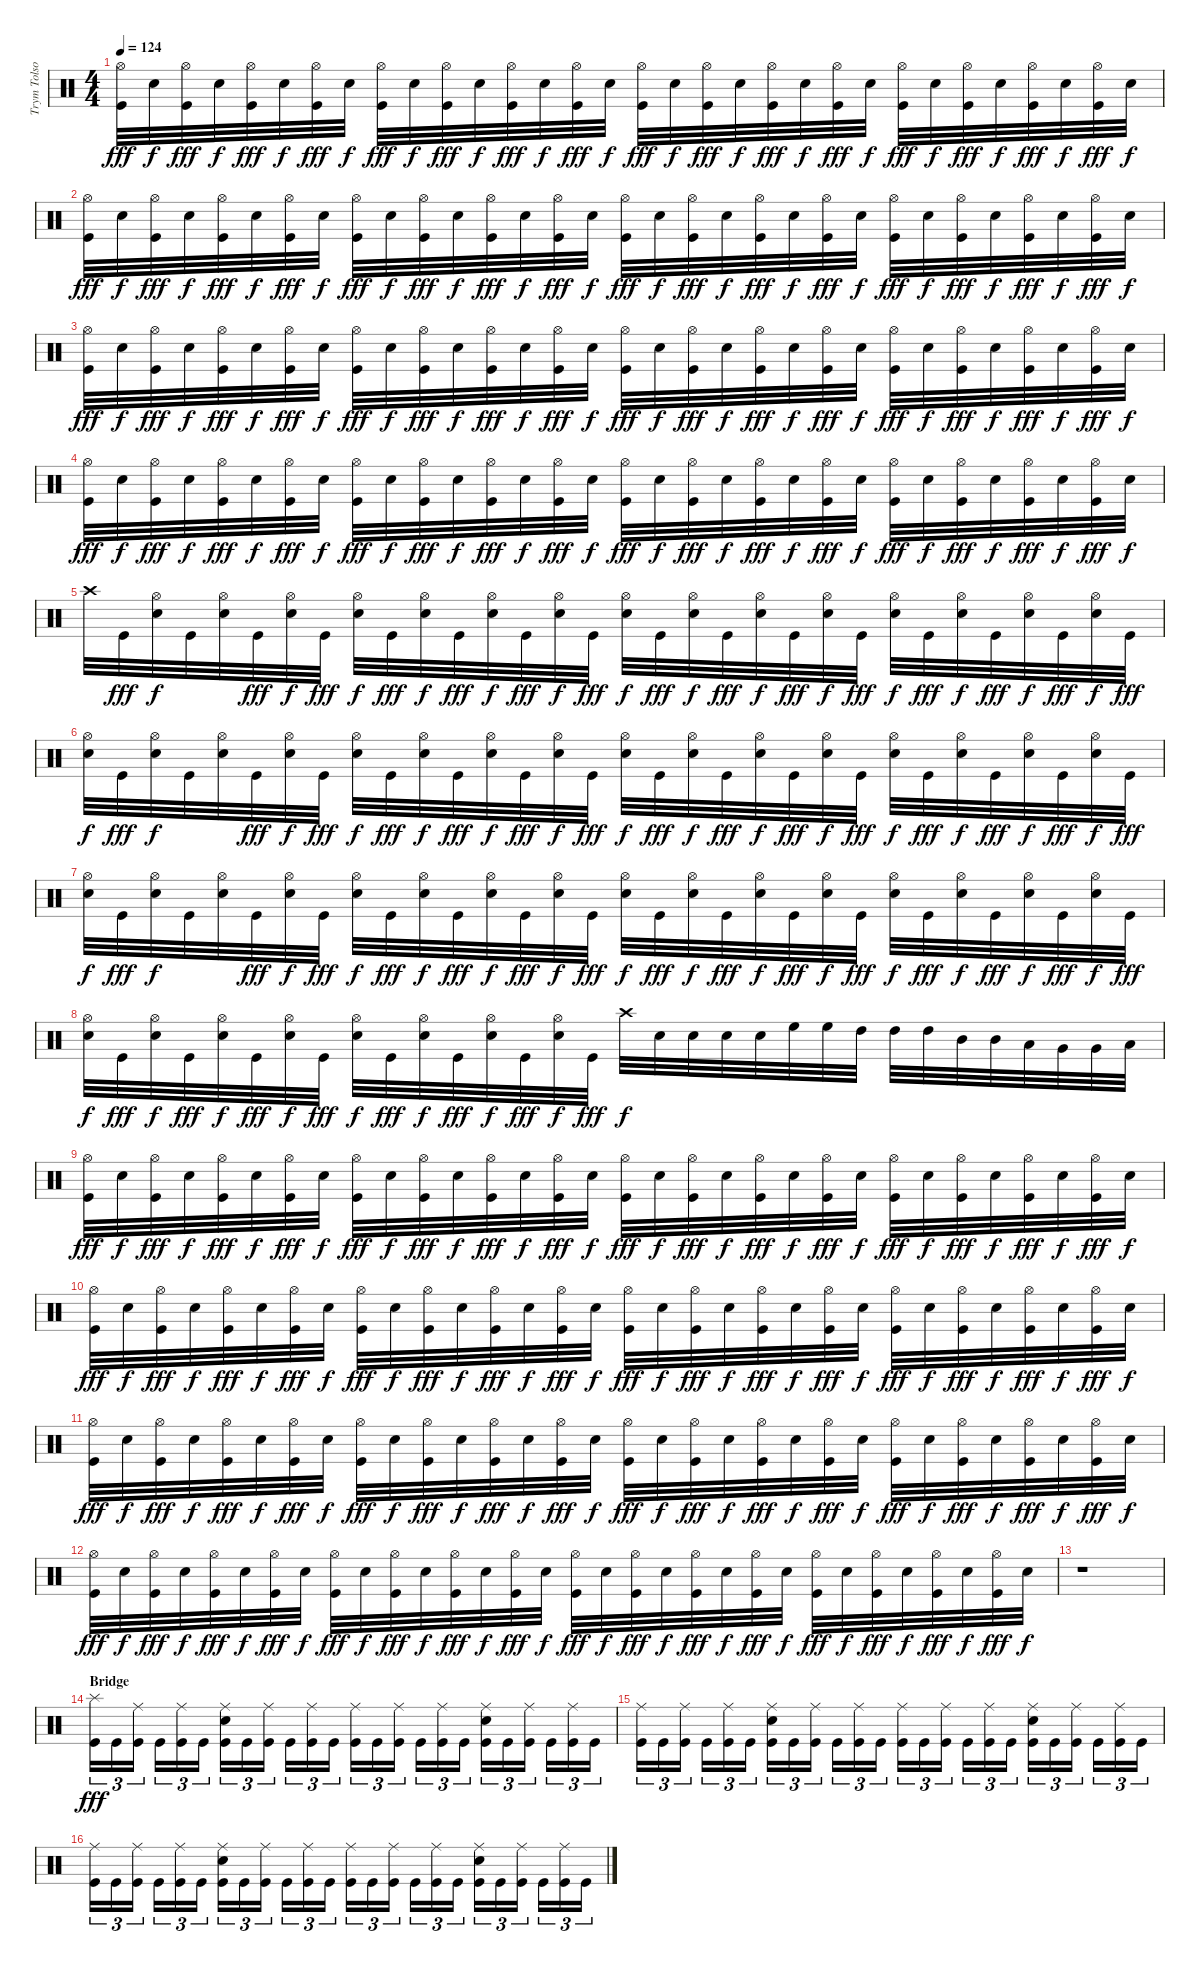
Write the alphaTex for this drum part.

\track ("Trym Tolson" "Trym Tolso") {instrument percussion}
\staff {score}
\articulation defaults
\ts (4 4)
\tempo 124
\clef neutral
\ks c
("Hi-Hat (open)" "Kick (hit)").32{dy fff} "Electric Snare (hit)".32{dy f} ("Hi-Hat (open)" "Kick (hit)").32{dy fff} "Electric Snare (hit)".32{dy f} ("Hi-Hat (open)" "Kick (hit)").32{dy fff} "Electric Snare (hit)".32{dy f} ("Hi-Hat (open)" "Kick (hit)").32{dy fff} "Electric Snare (hit)".32{dy f} ("Hi-Hat (open)" "Kick (hit)").32{dy fff} "Electric Snare (hit)".32{dy f} ("Hi-Hat (open)" "Kick (hit)").32{dy fff} "Electric Snare (hit)".32{dy f} ("Hi-Hat (open)" "Kick (hit)").32{dy fff} "Electric Snare (hit)".32{dy f} ("Hi-Hat (open)" "Kick (hit)").32{dy fff} "Electric Snare (hit)".32{dy f} ("Hi-Hat (open)" "Kick (hit)").32{dy fff} "Electric Snare (hit)".32{dy f} ("Hi-Hat (open)" "Kick (hit)").32{dy fff} "Electric Snare (hit)".32{dy f} ("Hi-Hat (open)" "Kick (hit)").32{dy fff} "Electric Snare (hit)".32{dy f} ("Hi-Hat (open)" "Kick (hit)").32{dy fff} "Electric Snare (hit)".32{dy f} ("Hi-Hat (open)" "Kick (hit)").32{dy fff} "Electric Snare (hit)".32{dy f} ("Hi-Hat (open)" "Kick (hit)").32{dy fff} "Electric Snare (hit)".32{dy f} ("Hi-Hat (open)" "Kick (hit)").32{dy fff} "Electric Snare (hit)".32{dy f} ("Hi-Hat (open)" "Kick (hit)").32{dy fff} "Electric Snare (hit)".32{dy f} |
("Hi-Hat (open)" "Kick (hit)").32{dy fff} "Electric Snare (hit)".32{dy f} ("Hi-Hat (open)" "Kick (hit)").32{dy fff} "Electric Snare (hit)".32{dy f} ("Hi-Hat (open)" "Kick (hit)").32{dy fff} "Electric Snare (hit)".32{dy f} ("Hi-Hat (open)" "Kick (hit)").32{dy fff} "Electric Snare (hit)".32{dy f} ("Hi-Hat (open)" "Kick (hit)").32{dy fff} "Electric Snare (hit)".32{dy f} ("Hi-Hat (open)" "Kick (hit)").32{dy fff} "Electric Snare (hit)".32{dy f} ("Hi-Hat (open)" "Kick (hit)").32{dy fff} "Electric Snare (hit)".32{dy f} ("Hi-Hat (open)" "Kick (hit)").32{dy fff} "Electric Snare (hit)".32{dy f} ("Hi-Hat (open)" "Kick (hit)").32{dy fff} "Electric Snare (hit)".32{dy f} ("Hi-Hat (open)" "Kick (hit)").32{dy fff} "Electric Snare (hit)".32{dy f} ("Hi-Hat (open)" "Kick (hit)").32{dy fff} "Electric Snare (hit)".32{dy f} ("Hi-Hat (open)" "Kick (hit)").32{dy fff} "Electric Snare (hit)".32{dy f} ("Hi-Hat (open)" "Kick (hit)").32{dy fff} "Electric Snare (hit)".32{dy f} ("Hi-Hat (open)" "Kick (hit)").32{dy fff} "Electric Snare (hit)".32{dy f} ("Hi-Hat (open)" "Kick (hit)").32{dy fff} "Electric Snare (hit)".32{dy f} ("Hi-Hat (open)" "Kick (hit)").32{dy fff} "Electric Snare (hit)".32{dy f} |
("Hi-Hat (open)" "Kick (hit)").32{dy fff} "Electric Snare (hit)".32{dy f} ("Hi-Hat (open)" "Kick (hit)").32{dy fff} "Electric Snare (hit)".32{dy f} ("Hi-Hat (open)" "Kick (hit)").32{dy fff} "Electric Snare (hit)".32{dy f} ("Hi-Hat (open)" "Kick (hit)").32{dy fff} "Electric Snare (hit)".32{dy f} ("Hi-Hat (open)" "Kick (hit)").32{dy fff} "Electric Snare (hit)".32{dy f} ("Hi-Hat (open)" "Kick (hit)").32{dy fff} "Electric Snare (hit)".32{dy f} ("Hi-Hat (open)" "Kick (hit)").32{dy fff} "Electric Snare (hit)".32{dy f} ("Hi-Hat (open)" "Kick (hit)").32{dy fff} "Electric Snare (hit)".32{dy f} ("Hi-Hat (open)" "Kick (hit)").32{dy fff} "Electric Snare (hit)".32{dy f} ("Hi-Hat (open)" "Kick (hit)").32{dy fff} "Electric Snare (hit)".32{dy f} ("Hi-Hat (open)" "Kick (hit)").32{dy fff} "Electric Snare (hit)".32{dy f} ("Hi-Hat (open)" "Kick (hit)").32{dy fff} "Electric Snare (hit)".32{dy f} ("Hi-Hat (open)" "Kick (hit)").32{dy fff} "Electric Snare (hit)".32{dy f} ("Hi-Hat (open)" "Kick (hit)").32{dy fff} "Electric Snare (hit)".32{dy f} ("Hi-Hat (open)" "Kick (hit)").32{dy fff} "Electric Snare (hit)".32{dy f} ("Hi-Hat (open)" "Kick (hit)").32{dy fff} "Electric Snare (hit)".32{dy f} |
("Hi-Hat (open)" "Kick (hit)").32{dy fff} "Electric Snare (hit)".32{dy f} ("Hi-Hat (open)" "Kick (hit)").32{dy fff} "Electric Snare (hit)".32{dy f} ("Hi-Hat (open)" "Kick (hit)").32{dy fff} "Electric Snare (hit)".32{dy f} ("Hi-Hat (open)" "Kick (hit)").32{dy fff} "Electric Snare (hit)".32{dy f} ("Hi-Hat (open)" "Kick (hit)").32{dy fff} "Electric Snare (hit)".32{dy f} ("Hi-Hat (open)" "Kick (hit)").32{dy fff} "Electric Snare (hit)".32{dy f} ("Hi-Hat (open)" "Kick (hit)").32{dy fff} "Electric Snare (hit)".32{dy f} ("Hi-Hat (open)" "Kick (hit)").32{dy fff} "Electric Snare (hit)".32{dy f} ("Hi-Hat (open)" "Kick (hit)").32{dy fff} "Electric Snare (hit)".32{dy f} ("Hi-Hat (open)" "Kick (hit)").32{dy fff} "Electric Snare (hit)".32{dy f} ("Hi-Hat (open)" "Kick (hit)").32{dy fff} "Electric Snare (hit)".32{dy f} ("Hi-Hat (open)" "Kick (hit)").32{dy fff} "Electric Snare (hit)".32{dy f} ("Hi-Hat (open)" "Kick (hit)").32{dy fff} "Electric Snare (hit)".32{dy f} ("Hi-Hat (open)" "Kick (hit)").32{dy fff} "Electric Snare (hit)".32{dy f} ("Hi-Hat (open)" "Kick (hit)").32{dy fff} "Electric Snare (hit)".32{dy f} ("Hi-Hat (open)" "Kick (hit)").32{dy fff} "Electric Snare (hit)".32{dy f} |
"Crash high (hit)".32 "Kick (hit)".32{dy fff} ("Hi-Hat (open)" "Electric Snare (hit)").32{dy f} "Kick (hit)".32 ("Hi-Hat (open)" "Electric Snare (hit)").32 "Kick (hit)".32{dy fff} ("Hi-Hat (open)" "Electric Snare (hit)").32{dy f} "Kick (hit)".32{dy fff} ("Hi-Hat (open)" "Electric Snare (hit)").32{dy f} "Kick (hit)".32{dy fff} ("Hi-Hat (open)" "Electric Snare (hit)").32{dy f} "Kick (hit)".32{dy fff} ("Hi-Hat (open)" "Electric Snare (hit)").32{dy f} "Kick (hit)".32{dy fff} ("Hi-Hat (open)" "Electric Snare (hit)").32{dy f} "Kick (hit)".32{dy fff} ("Hi-Hat (open)" "Electric Snare (hit)").32{dy f} "Kick (hit)".32{dy fff} ("Hi-Hat (open)" "Electric Snare (hit)").32{dy f} "Kick (hit)".32{dy fff} ("Hi-Hat (open)" "Electric Snare (hit)").32{dy f} "Kick (hit)".32{dy fff} ("Hi-Hat (open)" "Electric Snare (hit)").32{dy f} "Kick (hit)".32{dy fff} ("Hi-Hat (open)" "Electric Snare (hit)").32{dy f} "Kick (hit)".32{dy fff} ("Hi-Hat (open)" "Electric Snare (hit)").32{dy f} "Kick (hit)".32{dy fff} ("Hi-Hat (open)" "Electric Snare (hit)").32{dy f} "Kick (hit)".32{dy fff} ("Hi-Hat (open)" "Electric Snare (hit)").32{dy f} "Kick (hit)".32{dy fff} |
("Hi-Hat (open)" "Electric Snare (hit)").32{dy f} "Kick (hit)".32{dy fff} ("Hi-Hat (open)" "Electric Snare (hit)").32{dy f} "Kick (hit)".32 ("Hi-Hat (open)" "Electric Snare (hit)").32 "Kick (hit)".32{dy fff} ("Hi-Hat (open)" "Electric Snare (hit)").32{dy f} "Kick (hit)".32{dy fff} ("Hi-Hat (open)" "Electric Snare (hit)").32{dy f} "Kick (hit)".32{dy fff} ("Hi-Hat (open)" "Electric Snare (hit)").32{dy f} "Kick (hit)".32{dy fff} ("Hi-Hat (open)" "Electric Snare (hit)").32{dy f} "Kick (hit)".32{dy fff} ("Hi-Hat (open)" "Electric Snare (hit)").32{dy f} "Kick (hit)".32{dy fff} ("Hi-Hat (open)" "Electric Snare (hit)").32{dy f} "Kick (hit)".32{dy fff} ("Hi-Hat (open)" "Electric Snare (hit)").32{dy f} "Kick (hit)".32{dy fff} ("Hi-Hat (open)" "Electric Snare (hit)").32{dy f} "Kick (hit)".32{dy fff} ("Hi-Hat (open)" "Electric Snare (hit)").32{dy f} "Kick (hit)".32{dy fff} ("Hi-Hat (open)" "Electric Snare (hit)").32{dy f} "Kick (hit)".32{dy fff} ("Hi-Hat (open)" "Electric Snare (hit)").32{dy f} "Kick (hit)".32{dy fff} ("Hi-Hat (open)" "Electric Snare (hit)").32{dy f} "Kick (hit)".32{dy fff} ("Hi-Hat (open)" "Electric Snare (hit)").32{dy f} "Kick (hit)".32{dy fff} |
("Hi-Hat (open)" "Electric Snare (hit)").32{dy f} "Kick (hit)".32{dy fff} ("Hi-Hat (open)" "Electric Snare (hit)").32{dy f} "Kick (hit)".32 ("Hi-Hat (open)" "Electric Snare (hit)").32 "Kick (hit)".32{dy fff} ("Hi-Hat (open)" "Electric Snare (hit)").32{dy f} "Kick (hit)".32{dy fff} ("Hi-Hat (open)" "Electric Snare (hit)").32{dy f} "Kick (hit)".32{dy fff} ("Hi-Hat (open)" "Electric Snare (hit)").32{dy f} "Kick (hit)".32{dy fff} ("Hi-Hat (open)" "Electric Snare (hit)").32{dy f} "Kick (hit)".32{dy fff} ("Hi-Hat (open)" "Electric Snare (hit)").32{dy f} "Kick (hit)".32{dy fff} ("Hi-Hat (open)" "Electric Snare (hit)").32{dy f} "Kick (hit)".32{dy fff} ("Hi-Hat (open)" "Electric Snare (hit)").32{dy f} "Kick (hit)".32{dy fff} ("Hi-Hat (open)" "Electric Snare (hit)").32{dy f} "Kick (hit)".32{dy fff} ("Hi-Hat (open)" "Electric Snare (hit)").32{dy f} "Kick (hit)".32{dy fff} ("Hi-Hat (open)" "Electric Snare (hit)").32{dy f} "Kick (hit)".32{dy fff} ("Hi-Hat (open)" "Electric Snare (hit)").32{dy f} "Kick (hit)".32{dy fff} ("Hi-Hat (open)" "Electric Snare (hit)").32{dy f} "Kick (hit)".32{dy fff} ("Hi-Hat (open)" "Electric Snare (hit)").32{dy f} "Kick (hit)".32{dy fff} |
("Hi-Hat (open)" "Electric Snare (hit)").32{dy f} "Kick (hit)".32{dy fff} ("Hi-Hat (open)" "Electric Snare (hit)").32{dy f} "Kick (hit)".32{dy fff} ("Hi-Hat (open)" "Electric Snare (hit)").32{dy f} "Kick (hit)".32{dy fff} ("Hi-Hat (open)" "Electric Snare (hit)").32{dy f} "Kick (hit)".32{dy fff} ("Hi-Hat (open)" "Electric Snare (hit)").32{dy f} "Kick (hit)".32{dy fff} ("Hi-Hat (open)" "Electric Snare (hit)").32{dy f} "Kick (hit)".32{dy fff} ("Hi-Hat (open)" "Electric Snare (hit)").32{dy f} "Kick (hit)".32{dy fff} ("Hi-Hat (open)" "Electric Snare (hit)").32{dy f} "Kick (hit)".32{dy fff} "Crash high (hit)".32{dy f} "Electric Snare (hit)".32 "Electric Snare (hit)".32 "Electric Snare (hit)".32 "Electric Snare (hit)".32 "High Floor Tom (hit)".32 "High Floor Tom (hit)".32 "High Tom (hit)".32 "High Tom (hit)".32 "High Tom (hit)".32 "Mid Tom (hit)".32 "Mid Tom (hit)".32 "Low Tom (hit)".32 "Very Low Tom (hit)".32 "Very Low Tom (hit)".32 "Low Floor Tom (hit)".32 |
("Hi-Hat (open)" "Kick (hit)").32{dy fff} "Electric Snare (hit)".32{dy f} ("Hi-Hat (open)" "Kick (hit)").32{dy fff} "Electric Snare (hit)".32{dy f} ("Hi-Hat (open)" "Kick (hit)").32{dy fff} "Electric Snare (hit)".32{dy f} ("Hi-Hat (open)" "Kick (hit)").32{dy fff} "Electric Snare (hit)".32{dy f} ("Hi-Hat (open)" "Kick (hit)").32{dy fff} "Electric Snare (hit)".32{dy f} ("Hi-Hat (open)" "Kick (hit)").32{dy fff} "Electric Snare (hit)".32{dy f} ("Hi-Hat (open)" "Kick (hit)").32{dy fff} "Electric Snare (hit)".32{dy f} ("Hi-Hat (open)" "Kick (hit)").32{dy fff} "Electric Snare (hit)".32{dy f} ("Hi-Hat (open)" "Kick (hit)").32{dy fff} "Electric Snare (hit)".32{dy f} ("Hi-Hat (open)" "Kick (hit)").32{dy fff} "Electric Snare (hit)".32{dy f} ("Hi-Hat (open)" "Kick (hit)").32{dy fff} "Electric Snare (hit)".32{dy f} ("Hi-Hat (open)" "Kick (hit)").32{dy fff} "Electric Snare (hit)".32{dy f} ("Hi-Hat (open)" "Kick (hit)").32{dy fff} "Electric Snare (hit)".32{dy f} ("Hi-Hat (open)" "Kick (hit)").32{dy fff} "Electric Snare (hit)".32{dy f} ("Hi-Hat (open)" "Kick (hit)").32{dy fff} "Electric Snare (hit)".32{dy f} ("Hi-Hat (open)" "Kick (hit)").32{dy fff} "Electric Snare (hit)".32{dy f} |
("Hi-Hat (open)" "Kick (hit)").32{dy fff} "Electric Snare (hit)".32{dy f} ("Hi-Hat (open)" "Kick (hit)").32{dy fff} "Electric Snare (hit)".32{dy f} ("Hi-Hat (open)" "Kick (hit)").32{dy fff} "Electric Snare (hit)".32{dy f} ("Hi-Hat (open)" "Kick (hit)").32{dy fff} "Electric Snare (hit)".32{dy f} ("Hi-Hat (open)" "Kick (hit)").32{dy fff} "Electric Snare (hit)".32{dy f} ("Hi-Hat (open)" "Kick (hit)").32{dy fff} "Electric Snare (hit)".32{dy f} ("Hi-Hat (open)" "Kick (hit)").32{dy fff} "Electric Snare (hit)".32{dy f} ("Hi-Hat (open)" "Kick (hit)").32{dy fff} "Electric Snare (hit)".32{dy f} ("Hi-Hat (open)" "Kick (hit)").32{dy fff} "Electric Snare (hit)".32{dy f} ("Hi-Hat (open)" "Kick (hit)").32{dy fff} "Electric Snare (hit)".32{dy f} ("Hi-Hat (open)" "Kick (hit)").32{dy fff} "Electric Snare (hit)".32{dy f} ("Hi-Hat (open)" "Kick (hit)").32{dy fff} "Electric Snare (hit)".32{dy f} ("Hi-Hat (open)" "Kick (hit)").32{dy fff} "Electric Snare (hit)".32{dy f} ("Hi-Hat (open)" "Kick (hit)").32{dy fff} "Electric Snare (hit)".32{dy f} ("Hi-Hat (open)" "Kick (hit)").32{dy fff} "Electric Snare (hit)".32{dy f} ("Hi-Hat (open)" "Kick (hit)").32{dy fff} "Electric Snare (hit)".32{dy f} |
("Hi-Hat (open)" "Kick (hit)").32{dy fff} "Electric Snare (hit)".32{dy f} ("Hi-Hat (open)" "Kick (hit)").32{dy fff} "Electric Snare (hit)".32{dy f} ("Hi-Hat (open)" "Kick (hit)").32{dy fff} "Electric Snare (hit)".32{dy f} ("Hi-Hat (open)" "Kick (hit)").32{dy fff} "Electric Snare (hit)".32{dy f} ("Hi-Hat (open)" "Kick (hit)").32{dy fff} "Electric Snare (hit)".32{dy f} ("Hi-Hat (open)" "Kick (hit)").32{dy fff} "Electric Snare (hit)".32{dy f} ("Hi-Hat (open)" "Kick (hit)").32{dy fff} "Electric Snare (hit)".32{dy f} ("Hi-Hat (open)" "Kick (hit)").32{dy fff} "Electric Snare (hit)".32{dy f} ("Hi-Hat (open)" "Kick (hit)").32{dy fff} "Electric Snare (hit)".32{dy f} ("Hi-Hat (open)" "Kick (hit)").32{dy fff} "Electric Snare (hit)".32{dy f} ("Hi-Hat (open)" "Kick (hit)").32{dy fff} "Electric Snare (hit)".32{dy f} ("Hi-Hat (open)" "Kick (hit)").32{dy fff} "Electric Snare (hit)".32{dy f} ("Hi-Hat (open)" "Kick (hit)").32{dy fff} "Electric Snare (hit)".32{dy f} ("Hi-Hat (open)" "Kick (hit)").32{dy fff} "Electric Snare (hit)".32{dy f} ("Hi-Hat (open)" "Kick (hit)").32{dy fff} "Electric Snare (hit)".32{dy f} ("Hi-Hat (open)" "Kick (hit)").32{dy fff} "Electric Snare (hit)".32{dy f} |
("Hi-Hat (open)" "Kick (hit)").32{dy fff} "Electric Snare (hit)".32{dy f} ("Hi-Hat (open)" "Kick (hit)").32{dy fff} "Electric Snare (hit)".32{dy f} ("Hi-Hat (open)" "Kick (hit)").32{dy fff} "Electric Snare (hit)".32{dy f} ("Hi-Hat (open)" "Kick (hit)").32{dy fff} "Electric Snare (hit)".32{dy f} ("Hi-Hat (open)" "Kick (hit)").32{dy fff} "Electric Snare (hit)".32{dy f} ("Hi-Hat (open)" "Kick (hit)").32{dy fff} "Electric Snare (hit)".32{dy f} ("Hi-Hat (open)" "Kick (hit)").32{dy fff} "Electric Snare (hit)".32{dy f} ("Hi-Hat (open)" "Kick (hit)").32{dy fff} "Electric Snare (hit)".32{dy f} ("Hi-Hat (open)" "Kick (hit)").32{dy fff} "Electric Snare (hit)".32{dy f} ("Hi-Hat (open)" "Kick (hit)").32{dy fff} "Electric Snare (hit)".32{dy f} ("Hi-Hat (open)" "Kick (hit)").32{dy fff} "Electric Snare (hit)".32{dy f} ("Hi-Hat (open)" "Kick (hit)").32{dy fff} "Electric Snare (hit)".32{dy f} ("Hi-Hat (open)" "Kick (hit)").32{dy fff} "Electric Snare (hit)".32{dy f} ("Hi-Hat (open)" "Kick (hit)").32{dy fff} "Electric Snare (hit)".32{dy f} ("Hi-Hat (open)" "Kick (hit)").32{dy fff} "Electric Snare (hit)".32{dy f} ("Hi-Hat (open)" "Kick (hit)").32{dy fff} "Electric Snare (hit)".32{dy f} |
r.1 |
\section ("" "Bridge")
("Splash (hit)" "Kick (hit)").16{tu (3 2) dy fff} "Kick (hit)".16{tu (3 2)} ("Ride (middle)" "Kick (hit)").16{tu (3 2)} "Kick (hit)".16{tu (3 2)} ("Ride (middle)" "Kick (hit)").16{tu (3 2)} "Kick (hit)".16{tu (3 2)} ("Ride (middle)" "Electric Snare (hit)" "Kick (hit)").16{tu (3 2)} "Kick (hit)".16{tu (3 2)} ("Ride (middle)" "Kick (hit)").16{tu (3 2)} "Kick (hit)".16{tu (3 2)} ("Ride (middle)" "Kick (hit)").16{tu (3 2)} "Kick (hit)".16{tu (3 2)} ("Ride (middle)" "Kick (hit)").16{tu (3 2)} "Kick (hit)".16{tu (3 2)} ("Ride (middle)" "Kick (hit)").16{tu (3 2)} "Kick (hit)".16{tu (3 2)} ("Ride (middle)" "Kick (hit)").16{tu (3 2)} "Kick (hit)".16{tu (3 2)} ("Ride (middle)" "Electric Snare (hit)" "Kick (hit)").16{tu (3 2)} "Kick (hit)".16{tu (3 2)} ("Ride (middle)" "Kick (hit)").16{tu (3 2)} "Kick (hit)".16{tu (3 2)} ("Ride (middle)" "Kick (hit)").16{tu (3 2)} "Kick (hit)".16{tu (3 2)} |
("Ride (middle)" "Kick (hit)").16{tu (3 2)} "Kick (hit)".16{tu (3 2)} ("Ride (middle)" "Kick (hit)").16{tu (3 2)} "Kick (hit)".16{tu (3 2)} ("Ride (middle)" "Kick (hit)").16{tu (3 2)} "Kick (hit)".16{tu (3 2)} ("Ride (middle)" "Electric Snare (hit)" "Kick (hit)").16{tu (3 2)} "Kick (hit)".16{tu (3 2)} ("Ride (middle)" "Kick (hit)").16{tu (3 2)} "Kick (hit)".16{tu (3 2)} ("Ride (middle)" "Kick (hit)").16{tu (3 2)} "Kick (hit)".16{tu (3 2)} ("Ride (middle)" "Kick (hit)").16{tu (3 2)} "Kick (hit)".16{tu (3 2)} ("Ride (middle)" "Kick (hit)").16{tu (3 2)} "Kick (hit)".16{tu (3 2)} ("Ride (middle)" "Kick (hit)").16{tu (3 2)} "Kick (hit)".16{tu (3 2)} ("Ride (middle)" "Electric Snare (hit)" "Kick (hit)").16{tu (3 2)} "Kick (hit)".16{tu (3 2)} ("Ride (middle)" "Kick (hit)").16{tu (3 2)} "Kick (hit)".16{tu (3 2)} ("Ride (middle)" "Kick (hit)").16{tu (3 2)} "Kick (hit)".16{tu (3 2)} |
("Ride (middle)" "Kick (hit)").16{tu (3 2)} "Kick (hit)".16{tu (3 2)} ("Ride (middle)" "Kick (hit)").16{tu (3 2)} "Kick (hit)".16{tu (3 2)} ("Ride (middle)" "Kick (hit)").16{tu (3 2)} "Kick (hit)".16{tu (3 2)} ("Ride (middle)" "Electric Snare (hit)" "Kick (hit)").16{tu (3 2)} "Kick (hit)".16{tu (3 2)} ("Ride (middle)" "Kick (hit)").16{tu (3 2)} "Kick (hit)".16{tu (3 2)} ("Ride (middle)" "Kick (hit)").16{tu (3 2)} "Kick (hit)".16{tu (3 2)} ("Ride (middle)" "Kick (hit)").16{tu (3 2)} "Kick (hit)".16{tu (3 2)} ("Ride (middle)" "Kick (hit)").16{tu (3 2)} "Kick (hit)".16{tu (3 2)} ("Ride (middle)" "Kick (hit)").16{tu (3 2)} "Kick (hit)".16{tu (3 2)} ("Ride (middle)" "Electric Snare (hit)" "Kick (hit)").16{tu (3 2)} "Kick (hit)".16{tu (3 2)} ("Ride (middle)" "Kick (hit)").16{tu (3 2)} "Kick (hit)".16{tu (3 2)} ("Ride (middle)" "Kick (hit)").16{tu (3 2)} "Kick (hit)".16{tu (3 2)}
